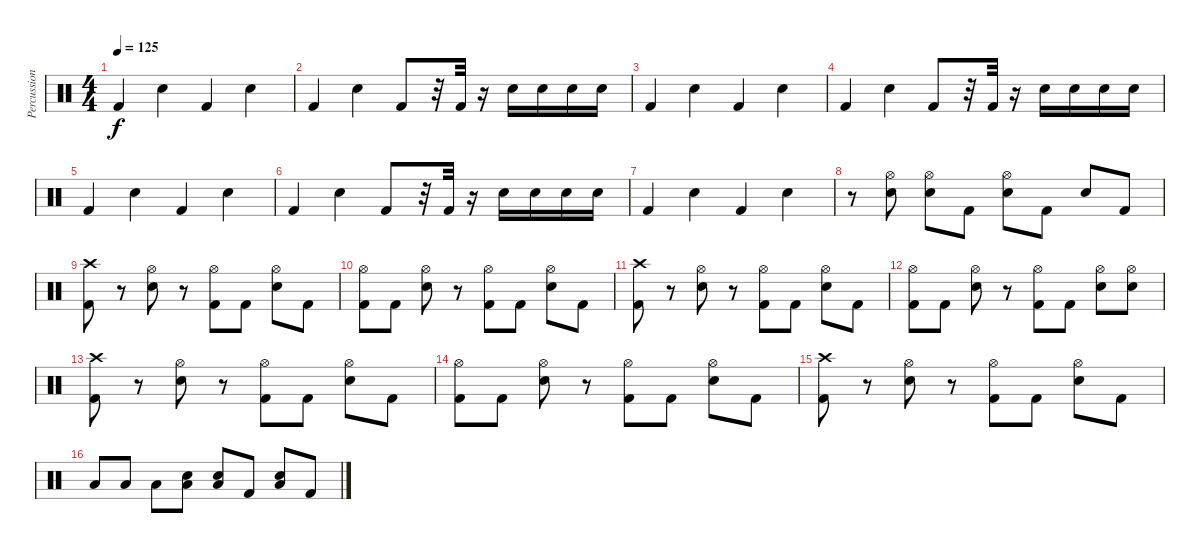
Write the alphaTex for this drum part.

\track ("Percussion" "Percussion") {instrument percussion}
\staff {score}
\articulation defaults
\ts (4 4)
\tempo 125
\clef neutral
\ks c "Kick (hit) 2".4{dy f} "Snare (hit) 2".4 "Kick (hit) 2".4 "Snare (hit) 2".4
|
"Kick (hit) 2".4 "Snare (hit) 2".4 "Kick (hit) 2".8 r.32 "Kick (hit) 2".32 r.16 "Snare (hit) 2".16 "Snare (hit) 2".16 "Snare (hit) 2".16 "Snare (hit) 2".16 |
"Kick (hit) 2".4 "Snare (hit) 2".4 "Kick (hit) 2".4 "Snare (hit) 2".4 |
"Kick (hit) 2".4 "Snare (hit) 2".4 "Kick (hit) 2".8 r.32 "Kick (hit) 2".32 r.16 "Snare (hit) 2".16 "Snare (hit) 2".16 "Snare (hit) 2".16 "Snare (hit) 2".16 |
"Kick (hit) 2".4 "Snare (hit) 2".4 "Kick (hit) 2".4 "Snare (hit) 2".4 |
"Kick (hit) 2".4 "Snare (hit) 2".4 "Kick (hit) 2".8 r.32 "Kick (hit) 2".32 r.16 "Snare (hit) 2".16 "Snare (hit) 2".16 "Snare (hit) 2".16 "Snare (hit) 2".16 |
"Kick (hit) 2".4 "Snare (hit) 2".4 "Kick (hit) 2".4 "Snare (hit) 2".4 |
r.8 ("Hi-Hat (open)" "Snare (hit) 2").8 ("Hi-Hat (open)" "Snare (hit) 2").8 "Kick (hit) 2".8 ("Hi-Hat (open)" "Snare (hit) 2").8 "Kick (hit) 2".8 "Snare (hit) 2".8 "Kick (hit) 2".8 |
("Crash high (hit)" "Kick (hit) 2").8 r.8 ("Hi-Hat (open)" "Snare (hit) 2").8 r.8 ("Hi-Hat (open)" "Kick (hit) 2").8 "Kick (hit) 2".8 ("Hi-Hat (open)" "Snare (hit) 2").8 "Kick (hit) 2".8 |
("Hi-Hat (open)" "Kick (hit) 2").8 "Kick (hit) 2".8 ("Hi-Hat (open)" "Snare (hit) 2").8 r.8 ("Hi-Hat (open)" "Kick (hit) 2").8 "Kick (hit) 2".8 ("Hi-Hat (open)" "Snare (hit) 2").8 "Kick (hit) 2".8 |
("Crash high (hit)" "Kick (hit) 2").8 r.8 ("Hi-Hat (open)" "Snare (hit) 2").8 r.8 ("Hi-Hat (open)" "Kick (hit) 2").8 "Kick (hit) 2".8 ("Hi-Hat (open)" "Snare (hit) 2").8 "Kick (hit) 2".8 |
("Hi-Hat (open)" "Kick (hit) 2").8 "Kick (hit) 2".8 ("Hi-Hat (open)" "Snare (hit) 2").8 r.8 ("Hi-Hat (open)" "Kick (hit) 2").8 "Kick (hit) 2".8 ("Hi-Hat (open)" "Snare (hit) 2").8 ("Hi-Hat (open)" "Snare (hit) 2").8 |
("Crash high (hit)" "Kick (hit) 2").8 r.8 ("Hi-Hat (open)" "Snare (hit) 2").8 r.8 ("Hi-Hat (open)" "Kick (hit) 2").8 "Kick (hit) 2".8 ("Hi-Hat (open)" "Snare (hit) 2").8 "Kick (hit) 2".8 |
("Hi-Hat (open)" "Kick (hit) 2").8 "Kick (hit) 2".8 ("Hi-Hat (open)" "Snare (hit) 2").8 r.8 ("Hi-Hat (open)" "Kick (hit) 2").8 "Kick (hit) 2".8 ("Hi-Hat (open)" "Snare (hit) 2").8 "Kick (hit) 2".8 |
("Crash high (hit)" "Kick (hit) 2").8 r.8 ("Hi-Hat (open)" "Snare (hit) 2").8 r.8 ("Hi-Hat (open)" "Kick (hit) 2").8 "Kick (hit) 2".8 ("Hi-Hat (open)" "Snare (hit) 2").8 "Kick (hit) 2".8 |
"Low Floor Tom (hit)".8 "Low Floor Tom (hit)".8 "Low Floor Tom (hit)".8 ("Low Floor Tom (hit)" "Snare (hit) 2").8 ("Low Floor Tom (hit)" "Snare (hit) 2").8 "Kick (hit) 2".8 ("Low Floor Tom (hit)" "Snare (hit) 2").8 "Kick (hit) 2".8
